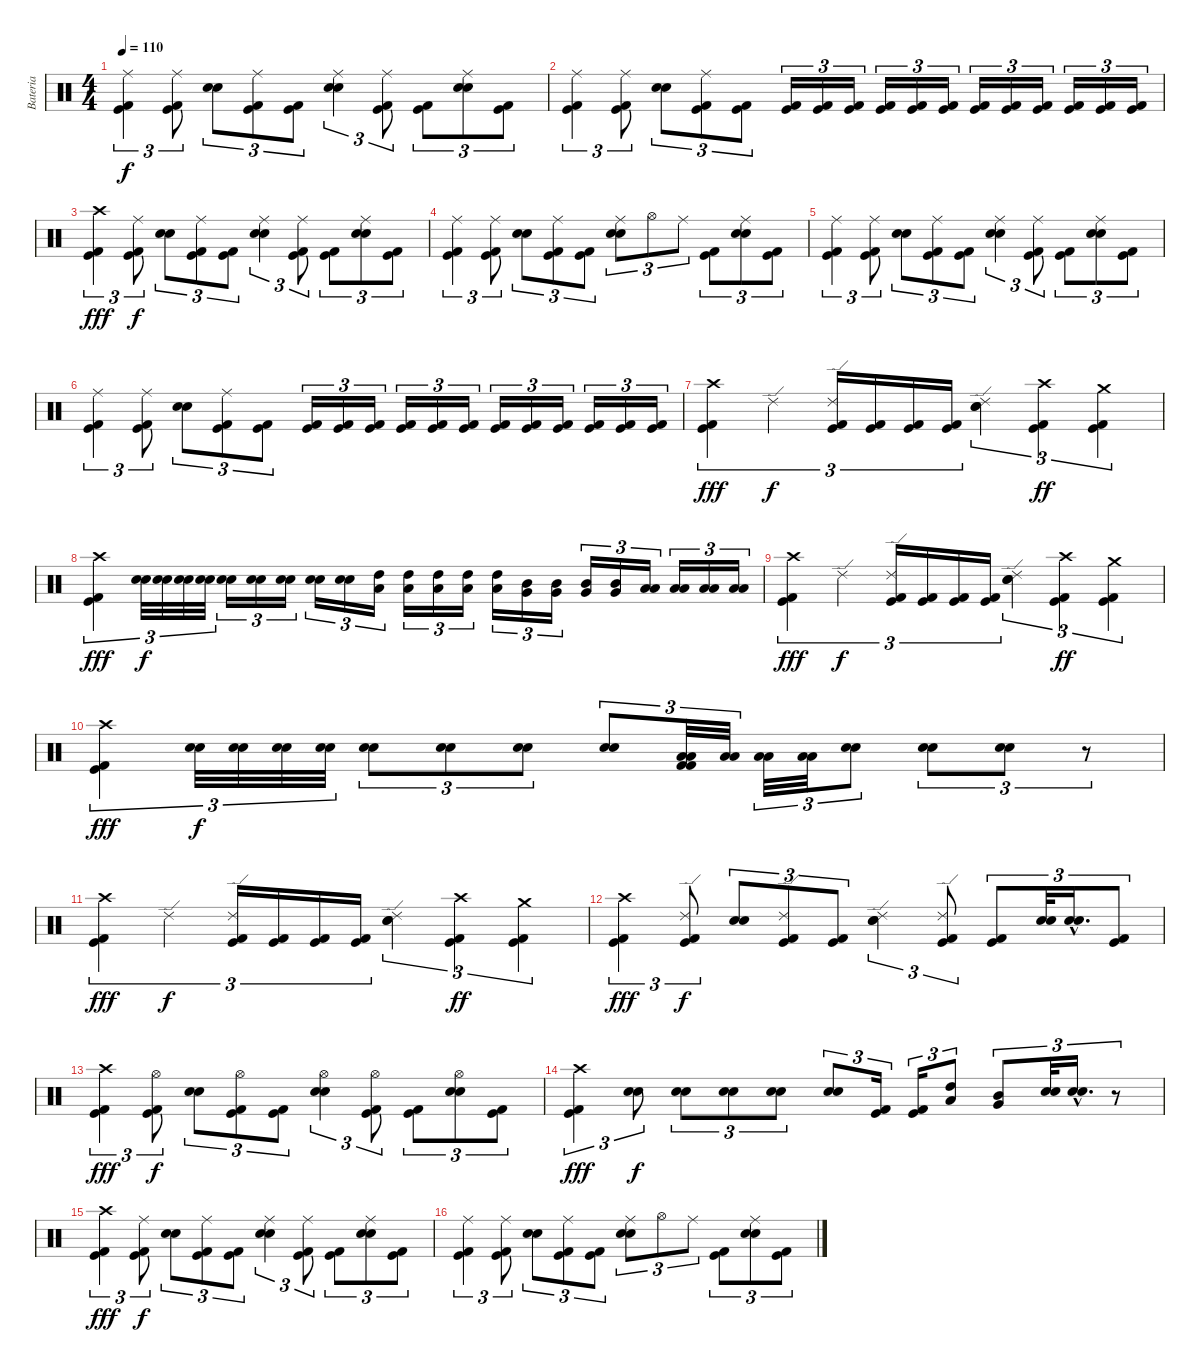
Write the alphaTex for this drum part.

\track ("Bateria" "Bateria") {instrument percussion}
\staff {score}
\articulation defaults
\ts (4 4)
\tempo 110
\clef neutral
\ks c
("Ride (middle)" "Kick (hit) 2" "Kick (hit)").4{tu (3 2) dy f} ("Ride (middle)" "Kick (hit) 2" "Kick (hit)").8{tu (3 2)} ("Electric Snare (hit)" "Snare (hit) 2").8{tu (3 2)} ("Ride (middle)" "Kick (hit) 2" "Kick (hit)").8{tu (3 2)} ("Kick (hit) 2" "Kick (hit)").8{tu (3 2)} ("Ride (middle)" "Electric Snare (hit)" "Snare (hit) 2").4{tu (3 2)} ("Ride (middle)" "Kick (hit) 2" "Kick (hit)").8{tu (3 2)} ("Kick (hit) 2" "Kick (hit)").8{tu (3 2)} ("Ride (middle)" "Electric Snare (hit)" "Snare (hit) 2").8{tu (3 2)} ("Kick (hit) 2" "Kick (hit)").8{tu (3 2)} |
("Ride (middle)" "Kick (hit) 2" "Kick (hit)").4{tu (3 2)} ("Ride (middle)" "Kick (hit) 2" "Kick (hit)").8{tu (3 2)} ("Electric Snare (hit)" "Snare (hit) 2").8{tu (3 2)} ("Ride (middle)" "Kick (hit) 2" "Kick (hit)").8{tu (3 2)} ("Kick (hit) 2" "Kick (hit)").8{tu (3 2)} ("Kick (hit) 2" "Kick (hit)").16{tu (3 2)} ("Kick (hit) 2" "Kick (hit)").16{tu (3 2)} ("Kick (hit) 2" "Kick (hit)").16{tu (3 2)} ("Kick (hit) 2" "Kick (hit)").16{tu (3 2)} ("Kick (hit) 2" "Kick (hit)").16{tu (3 2)} ("Kick (hit) 2" "Kick (hit)").16{tu (3 2)} ("Kick (hit) 2" "Kick (hit)").16{tu (3 2)} ("Kick (hit) 2" "Kick (hit)").16{tu (3 2)} ("Kick (hit) 2" "Kick (hit)").16{tu (3 2)} ("Kick (hit) 2" "Kick (hit)").16{tu (3 2)} ("Kick (hit) 2" "Kick (hit)").16{tu (3 2)} ("Kick (hit) 2" "Kick (hit)").16{tu (3 2)} |
("Crash high (hit)" "Kick (hit) 2" "Kick (hit)").4{tu (3 2) dy fff} ("Ride (middle)" "Kick (hit) 2" "Kick (hit)").8{tu (3 2) dy f} ("Electric Snare (hit)" "Snare (hit) 2").8{tu (3 2)} ("Ride (middle)" "Kick (hit) 2" "Kick (hit)").8{tu (3 2)} ("Kick (hit) 2" "Kick (hit)").8{tu (3 2)} ("Ride (middle)" "Electric Snare (hit)" "Snare (hit) 2").4{tu (3 2)} ("Ride (middle)" "Kick (hit) 2" "Kick (hit)").8{tu (3 2)} ("Kick (hit) 2" "Kick (hit)").8{tu (3 2)} ("Ride (middle)" "Electric Snare (hit)" "Snare (hit) 2").8{tu (3 2)} ("Kick (hit) 2" "Kick (hit)").8{tu (3 2)} |
("Ride (middle)" "Kick (hit) 2" "Kick (hit)").4{tu (3 2)} ("Ride (middle)" "Kick (hit) 2" "Kick (hit)").8{tu (3 2)} ("Electric Snare (hit)" "Snare (hit) 2").8{tu (3 2)} ("Ride (middle)" "Kick (hit) 2" "Kick (hit)").8{tu (3 2)} ("Kick (hit) 2" "Kick (hit)").8{tu (3 2)} ("Ride (middle)" "Electric Snare (hit)" "Snare (hit) 2").8{tu (3 2)} "Hi-Hat (open)".8{tu (3 2)} "Ride (middle)".8{tu (3 2)} ("Kick (hit) 2" "Kick (hit)").8{tu (3 2)} ("Ride (middle)" "Electric Snare (hit)" "Snare (hit) 2").8{tu (3 2)} ("Kick (hit) 2" "Kick (hit)").8{tu (3 2)} |
("Ride (middle)" "Kick (hit) 2" "Kick (hit)").4{tu (3 2)} ("Ride (middle)" "Kick (hit) 2" "Kick (hit)").8{tu (3 2)} ("Electric Snare (hit)" "Snare (hit) 2").8{tu (3 2)} ("Ride (middle)" "Kick (hit) 2" "Kick (hit)").8{tu (3 2)} ("Kick (hit) 2" "Kick (hit)").8{tu (3 2)} ("Ride (middle)" "Electric Snare (hit)" "Snare (hit) 2").4{tu (3 2)} ("Ride (middle)" "Kick (hit) 2" "Kick (hit)").8{tu (3 2)} ("Kick (hit) 2" "Kick (hit)").8{tu (3 2)} ("Ride (middle)" "Electric Snare (hit)" "Snare (hit) 2").8{tu (3 2)} ("Kick (hit) 2" "Kick (hit)").8{tu (3 2)} |
("Ride (middle)" "Kick (hit) 2" "Kick (hit)").4{tu (3 2)} ("Ride (middle)" "Kick (hit) 2" "Kick (hit)").8{tu (3 2)} ("Electric Snare (hit)" "Snare (hit) 2").8{tu (3 2)} ("Ride (middle)" "Kick (hit) 2" "Kick (hit)").8{tu (3 2)} ("Kick (hit) 2" "Kick (hit)").8{tu (3 2)} ("Kick (hit) 2" "Kick (hit)").16{tu (3 2)} ("Kick (hit) 2" "Kick (hit)").16{tu (3 2)} ("Kick (hit) 2" "Kick (hit)").16{tu (3 2)} ("Kick (hit) 2" "Kick (hit)").16{tu (3 2)} ("Kick (hit) 2" "Kick (hit)").16{tu (3 2)} ("Kick (hit) 2" "Kick (hit)").16{tu (3 2)} ("Kick (hit) 2" "Kick (hit)").16{tu (3 2)} ("Kick (hit) 2" "Kick (hit)").16{tu (3 2)} ("Kick (hit) 2" "Kick (hit)").16{tu (3 2)} ("Kick (hit) 2" "Kick (hit)").16{tu (3 2)} ("Kick (hit) 2" "Kick (hit)").16{tu (3 2)} ("Kick (hit) 2" "Kick (hit)").16{tu (3 2)} |
("Crash high (hit)" "Kick (hit) 2" "Kick (hit)").4{tu (3 2) dy fff} "Ride (edge) 2".4{tu (3 2) dy f} ("Ride (edge) 2" "Kick (hit) 2" "Kick (hit)").16{tu (3 2)} ("Kick (hit) 2" "Kick (hit)").16{tu (3 2)} ("Kick (hit) 2" "Kick (hit)").16{tu (3 2)} ("Kick (hit) 2" "Kick (hit)").16{tu (3 2)} ("Ride (edge) 2" "Electric Snare (hit)" "Snare (hit) 2").4{tu (3 2)} ("Crash high (hit)" "Kick (hit) 2" "Kick (hit)").4{tu (3 2) dy ff} ("Crash medium (hit)" "Kick (hit) 2" "Kick (hit)").4{tu (3 2)} |
("Crash high (hit)" "Kick (hit) 2" "Kick (hit)").4{tu (3 2) dy fff} ("Electric Snare (hit)" "Snare (hit) 2").32{tu (3 2) dy f} ("Electric Snare (hit)" "Snare (hit) 2").32{tu (3 2)} ("Electric Snare (hit)" "Snare (hit) 2").32{tu (3 2)} ("Electric Snare (hit)" "Snare (hit) 2").32{tu (3 2)} ("Electric Snare (hit)" "Snare (hit) 2").16{tu (3 2)} ("Electric Snare (hit)" "Snare (hit) 2").16{tu (3 2)} ("Electric Snare (hit)" "Snare (hit) 2").16{tu (3 2)} ("Electric Snare (hit)" "Snare (hit) 2").16{tu (3 2)} ("Electric Snare (hit)" "Snare (hit) 2").16{tu (3 2)} ("High Tom (hit)" "Low Tom (hit)").16{tu (3 2)} ("High Tom (hit)" "Low Tom (hit)").16{tu (3 2)} ("High Tom (hit)" "Low Tom (hit)").16{tu (3 2)} ("High Tom (hit)" "Low Tom (hit)").16{tu (3 2)} ("High Tom (hit)" "Low Tom (hit)").16{tu (3 2)} ("Mid Tom (hit)" "Very Low Tom (hit)").16{tu (3 2)} ("Mid Tom (hit)" "Very Low Tom (hit)").16{tu (3 2)} ("Mid Tom (hit)" "Very Low Tom (hit)").16{tu (3 2)} ("Mid Tom (hit)" "Very Low Tom (hit)").16{tu (3 2)} ("Low Tom (hit)" "Low Floor Tom (hit)").16{tu (3 2)} ("Low Tom (hit)" "Low Floor Tom (hit)").16{tu (3 2)} ("Low Tom (hit)" "Low Floor Tom (hit)").16{tu (3 2)} ("Low Tom (hit)" "Low Floor Tom (hit)").16{tu (3 2)} |
("Crash high (hit)" "Kick (hit) 2" "Kick (hit)").4{tu (3 2) dy fff} "Ride (edge) 2".4{tu (3 2) dy f} ("Ride (edge) 2" "Kick (hit) 2" "Kick (hit)").16{tu (3 2)} ("Kick (hit) 2" "Kick (hit)").16{tu (3 2)} ("Kick (hit) 2" "Kick (hit)").16{tu (3 2)} ("Kick (hit) 2" "Kick (hit)").16{tu (3 2)} ("Ride (edge) 2" "Electric Snare (hit)" "Snare (hit) 2").4{tu (3 2)} ("Crash high (hit)" "Kick (hit) 2" "Kick (hit)").4{tu (3 2) dy ff} ("Crash medium (hit)" "Kick (hit) 2" "Kick (hit)").4{tu (3 2)} |
("Crash high (hit)" "Kick (hit) 2" "Kick (hit)").4{tu (3 2) dy fff} ("Electric Snare (hit)" "Snare (hit) 2").32{tu (3 2) dy f} ("Electric Snare (hit)" "Snare (hit) 2").32{tu (3 2)} ("Electric Snare (hit)" "Snare (hit) 2").32{tu (3 2)} ("Electric Snare (hit)" "Snare (hit) 2").32{tu (3 2)} ("Electric Snare (hit)" "Snare (hit) 2").8{tu (3 2)} ("Electric Snare (hit)" "Snare (hit) 2").8{tu (3 2)} ("Electric Snare (hit)" "Snare (hit) 2").8{tu (3 2)} ("Electric Snare (hit)" "Snare (hit) 2").8{tu (3 2)} ("Low Tom (hit)" "Low Floor Tom (hit)" "Kick (hit) 2" "Kick (hit) 2").32{tu (3 2)} ("Low Tom (hit)" "Low Floor Tom (hit)").32{tu (3 2)} ("Low Tom (hit)" "Low Floor Tom (hit)").32{tu (3 2)} ("Low Tom (hit)" "Low Floor Tom (hit)").32{tu (3 2)} ("Electric Snare (hit)" "Snare (hit) 2").8{tu (3 2)} ("Electric Snare (hit)" "Snare (hit) 2").8{tu (3 2)} ("Electric Snare (hit)" "Snare (hit) 2").8{tu (3 2)} r.8{tu (3 2)} |
("Crash high (hit)" "Kick (hit) 2" "Kick (hit)").4{tu (3 2) dy fff} "Ride (edge) 2".4{tu (3 2) dy f} ("Ride (edge) 2" "Kick (hit) 2" "Kick (hit)").16{tu (3 2)} ("Kick (hit) 2" "Kick (hit)").16{tu (3 2)} ("Kick (hit) 2" "Kick (hit)").16{tu (3 2)} ("Kick (hit) 2" "Kick (hit)").16{tu (3 2)} ("Ride (edge) 2" "Electric Snare (hit)" "Snare (hit) 2").4{tu (3 2)} ("Crash high (hit)" "Kick (hit) 2" "Kick (hit)").4{tu (3 2) dy ff} ("Crash medium (hit)" "Kick (hit) 2" "Kick (hit)").4{tu (3 2)} |
("Crash high (hit)" "Kick (hit) 2" "Kick (hit)").4{tu (3 2) dy fff} ("Ride (edge) 2" "Kick (hit) 2" "Kick (hit)").8{tu (3 2) dy f} ("Electric Snare (hit)" "Snare (hit) 2").8{tu (3 2)} ("Ride (edge) 2" "Kick (hit) 2" "Kick (hit)").8{tu (3 2)} ("Kick (hit) 2" "Kick (hit)").8{tu (3 2)} ("Ride (edge) 2" "Electric Snare (hit)" "Snare (hit) 2").4{tu (3 2)} ("Ride (edge) 2" "Kick (hit) 2" "Kick (hit)").8{tu (3 2)} ("Kick (hit) 2" "Kick (hit)").8{tu (3 2)} ("Electric Snare (hit)" "Snare (hit) 2").32{tu (3 2)} ("Electric Snare (hit)"{hac} "Snare (hit) 2"{hac}).16{d tu (3 2)} ("Kick (hit) 2" "Kick (hit)").8{tu (3 2)} |
("Crash high (hit)" "Kick (hit) 2" "Kick (hit)").4{tu (3 2) dy fff} ("Hi-Hat (open)" "Kick (hit) 2" "Kick (hit)").8{tu (3 2) dy f} ("Electric Snare (hit)" "Snare (hit) 2").8{tu (3 2)} ("Hi-Hat (open)" "Kick (hit) 2" "Kick (hit)").8{tu (3 2)} ("Kick (hit) 2" "Kick (hit)").8{tu (3 2)} ("Hi-Hat (open)" "Electric Snare (hit)" "Snare (hit) 2").4{tu (3 2)} ("Hi-Hat (open)" "Kick (hit) 2" "Kick (hit)").8{tu (3 2)} ("Kick (hit) 2" "Kick (hit)").8{tu (3 2)} ("Hi-Hat (open)" "Electric Snare (hit)" "Snare (hit) 2").8{tu (3 2)} ("Kick (hit) 2" "Kick (hit)").8{tu (3 2)} |
("Crash high (hit)" "Kick (hit) 2" "Kick (hit)").4{tu (3 2) dy fff} ("Electric Snare (hit)" "Snare (hit) 2").8{tu (3 2) dy f} ("Electric Snare (hit)" "Snare (hit) 2").8{tu (3 2)} ("Electric Snare (hit)" "Snare (hit) 2").8{tu (3 2)} ("Electric Snare (hit)" "Snare (hit) 2").8{tu (3 2)} ("Electric Snare (hit)" "Snare (hit) 2").8{tu (3 2)} ("Kick (hit) 2" "Kick (hit)").16{tu (3 2)} ("Kick (hit) 2" "Kick (hit)").16{tu (3 2)} ("High Tom (hit)" "Low Tom (hit)").8{tu (3 2)} ("Mid Tom (hit)" "Very Low Tom (hit)").8{tu (3 2)} ("Electric Snare (hit)" "Snare (hit) 2").32{tu (3 2)} ("Electric Snare (hit)"{hac} "Snare (hit) 2"{hac}).16{d tu (3 2)} r.8{tu (3 2)} |
("Crash high (hit)" "Kick (hit) 2" "Kick (hit)").4{tu (3 2) dy fff} ("Ride (middle)" "Kick (hit) 2" "Kick (hit)").8{tu (3 2) dy f} ("Electric Snare (hit)" "Snare (hit) 2").8{tu (3 2)} ("Ride (middle)" "Kick (hit) 2" "Kick (hit)").8{tu (3 2)} ("Kick (hit) 2" "Kick (hit)").8{tu (3 2)} ("Ride (middle)" "Electric Snare (hit)" "Snare (hit) 2").4{tu (3 2)} ("Ride (middle)" "Kick (hit) 2" "Kick (hit)").8{tu (3 2)} ("Kick (hit) 2" "Kick (hit)").8{tu (3 2)} ("Ride (middle)" "Electric Snare (hit)" "Snare (hit) 2").8{tu (3 2)} ("Kick (hit) 2" "Kick (hit)").8{tu (3 2)} |
("Ride (middle)" "Kick (hit) 2" "Kick (hit)").4{tu (3 2)} ("Ride (middle)" "Kick (hit) 2" "Kick (hit)").8{tu (3 2)} ("Electric Snare (hit)" "Snare (hit) 2").8{tu (3 2)} ("Ride (middle)" "Kick (hit) 2" "Kick (hit)").8{tu (3 2)} ("Kick (hit) 2" "Kick (hit)").8{tu (3 2)} ("Ride (middle)" "Electric Snare (hit)" "Snare (hit) 2").8{tu (3 2)} "Hi-Hat (open)".8{tu (3 2)} "Ride (middle)".8{tu (3 2)} ("Kick (hit) 2" "Kick (hit)").8{tu (3 2)} ("Ride (middle)" "Electric Snare (hit)" "Snare (hit) 2").8{tu (3 2)} ("Kick (hit) 2" "Kick (hit)").8{tu (3 2)}
